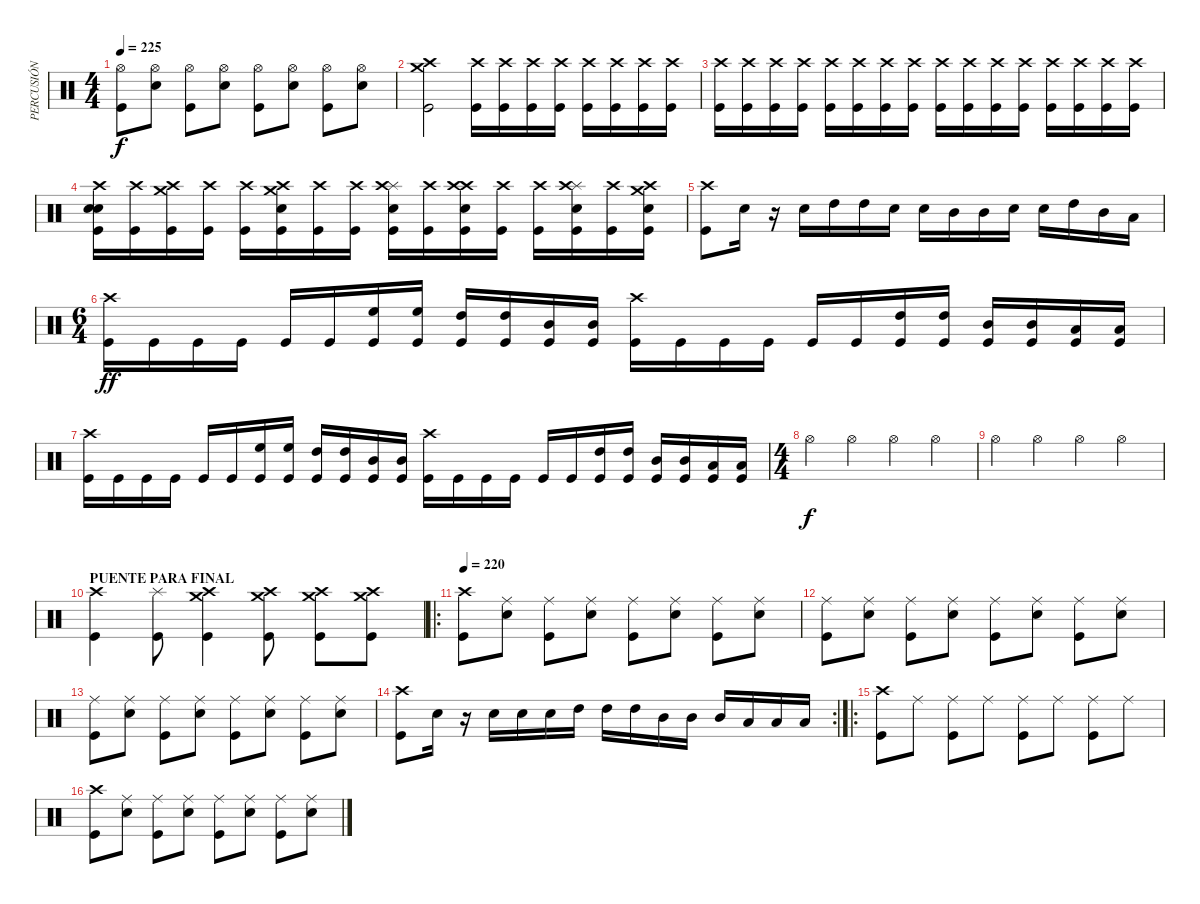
\track ("PERCUSIÓN" "PERCUSIÓN") {instrument percussion}
\staff {score}
\articulation defaults
\ts (4 4)
\tempo 225
\clef neutral
\ks c
("Hi-Hat (open)" "Kick (hit)").8{dy f} ("Hi-Hat (open)" "Snare (hit) 2").8 ("Hi-Hat (open)" "Kick (hit)").8 ("Hi-Hat (open)" "Snare (hit) 2").8 ("Hi-Hat (open)" "Kick (hit)").8 ("Hi-Hat (open)" "Snare (hit) 2").8 ("Hi-Hat (open)" "Kick (hit)").8 ("Hi-Hat (open)" "Snare (hit) 2").8 |
("Crash medium (hit)" "Kick (hit)" "Crash high (hit)").2 ("Crash high (hit)" "Kick (hit)").16 ("Crash high (hit)" "Kick (hit)").16 ("Crash high (hit)" "Kick (hit)").16 ("Crash high (hit)" "Kick (hit)").16 ("Crash high (hit)" "Kick (hit)").16 ("Crash high (hit)" "Kick (hit)").16 ("Crash high (hit)" "Kick (hit)").16 ("Crash high (hit)" "Kick (hit)").16 |
("Crash high (hit)" "Kick (hit)").16 ("Crash high (hit)" "Kick (hit)").16 ("Crash high (hit)" "Kick (hit)").16 ("Crash high (hit)" "Kick (hit)").16 ("Crash high (hit)" "Kick (hit)").16 ("Crash high (hit)" "Kick (hit)").16 ("Crash high (hit)" "Kick (hit)").16 ("Crash high (hit)" "Kick (hit)").16 ("Crash high (hit)" "Kick (hit)").16 ("Crash high (hit)" "Kick (hit)").16 ("Crash high (hit)" "Kick (hit)").16 ("Crash high (hit)" "Kick (hit)").16 ("Crash high (hit)" "Kick (hit)").16 ("Crash high (hit)" "Kick (hit)").16 ("Crash high (hit)" "Kick (hit)").16 ("Crash high (hit)" "Kick (hit)").16 |
("Snare (hit) 2" "Snare (hit) 2" "Crash high (hit)" "Kick (hit)").16 ("Crash high (hit)" "Kick (hit)").16 ("Crash medium (hit)" "Crash high (hit)" "Kick (hit)").16 ("Crash high (hit)" "Kick (hit)").16 ("Crash high (hit)" "Kick (hit)").16 ("Crash medium (hit)" "Snare (hit) 2" "Crash high (hit)" "Kick (hit)").16 ("Crash high (hit)" "Kick (hit)").16 ("Crash high (hit)" "Kick (hit)").16 ("Splash (hit)" "Snare (hit) 2" "Crash high (hit)" "Kick (hit)").16 ("Crash high (hit)" "Kick (hit)").16 ("Crash high (hit)" "Snare (hit) 2" "Crash high (hit)" "Kick (hit)").16 ("Crash high (hit)" "Kick (hit)").16 ("Crash high (hit)" "Kick (hit)").16 ("Splash (hit)" "Snare (hit) 2" "Crash high (hit)" "Kick (hit)").16 ("Crash high (hit)" "Kick (hit)").16 ("Crash medium (hit)" "Snare (hit) 2" "Crash high (hit)" "Kick (hit)").16 |
("Crash high (hit)" "Kick (hit)").8 "Snare (hit) 2".16 r.16 "Snare (hit) 2".16 "High Tom (hit)".16 "High Tom (hit)".16 "Snare (hit) 2".16 "Snare (hit) 2".16 "Mid Tom (hit)".16 "Mid Tom (hit)".16 "Snare (hit) 2".16 "Snare (hit) 2".16 "High Tom (hit)".16 "Mid Tom (hit)".16 "Low Tom (hit)".16 |
\ts (6 4)
("Crash high (hit)" "Kick (hit)").16{dy ff} "Kick (hit)".16 "Kick (hit)".16 "Kick (hit)".16 "Kick (hit)".16 "Kick (hit)".16 ("High Floor Tom (hit)" "Kick (hit)").16 ("High Floor Tom (hit)" "Kick (hit)").16 ("High Tom (hit)" "Kick (hit)").16 ("High Tom (hit)" "Kick (hit)").16 ("Mid Tom (hit)" "Kick (hit)").16 ("Mid Tom (hit)" "Kick (hit)").16 ("Crash high (hit)" "Kick (hit)").16 "Kick (hit)".16 "Kick (hit)".16 "Kick (hit)".16 "Kick (hit)".16 "Kick (hit)".16 ("High Tom (hit)" "Kick (hit)").16 ("High Tom (hit)" "Kick (hit)").16 ("Mid Tom (hit)" "Kick (hit)").16 ("Mid Tom (hit)" "Kick (hit)").16 ("Low Tom (hit)" "Kick (hit)").16 ("Low Tom (hit)" "Kick (hit)").16 |
("Crash high (hit)" "Kick (hit)").16 "Kick (hit)".16 "Kick (hit)".16 "Kick (hit)".16 "Kick (hit)".16 "Kick (hit)".16 ("High Floor Tom (hit)" "Kick (hit)").16 ("High Floor Tom (hit)" "Kick (hit)").16 ("High Tom (hit)" "Kick (hit)").16 ("High Tom (hit)" "Kick (hit)").16 ("Mid Tom (hit)" "Kick (hit)").16 ("Mid Tom (hit)" "Kick (hit)").16 ("Crash high (hit)" "Kick (hit)").16 "Kick (hit)".16 "Kick (hit)".16 "Kick (hit)".16 "Kick (hit)".16 "Kick (hit)".16 ("High Tom (hit)" "Kick (hit)").16 ("High Tom (hit)" "Kick (hit)").16 ("Mid Tom (hit)" "Kick (hit)").16 ("Mid Tom (hit)" "Kick (hit)").16 ("Low Tom (hit)" "Kick (hit)").16 ("Low Tom (hit)" "Kick (hit)").16 |
\ts (4 4)
"Hi-Hat (open)".4{dy f} "Hi-Hat (open)".4 "Hi-Hat (open)".4 "Hi-Hat (open)".4 |
"Hi-Hat (open)".4 "Hi-Hat (open)".4 "Hi-Hat (open)".4 "Hi-Hat (open)".4 |
\section ("" "PUENTE PARA FINAL")
("Crash high (hit)" "Kick (hit)").4 ("Splash (hit)" "Kick (hit)").8 ("Crash medium (hit)" "Crash high (hit)" "Kick (hit)").4 ("Crash medium (hit)" "Crash high (hit)" "Kick (hit)").8 ("Crash medium (hit)" "Crash high (hit)" "Kick (hit)").8 ("Crash medium (hit)" "Crash high (hit)" "Kick (hit)").8 |
\ro
\tempo 220
("Crash high (hit)" "Kick (hit)").8 ("Ride (middle)" "Snare (hit) 2").8 ("Ride (middle)" "Kick (hit)").8 ("Ride (middle)" "Snare (hit) 2").8 ("Ride (middle)" "Kick (hit)").8 ("Ride (middle)" "Snare (hit) 2").8 ("Ride (middle)" "Kick (hit)").8 ("Ride (middle)" "Snare (hit) 2").8 |
("Ride (middle)" "Kick (hit)").8 ("Ride (middle)" "Snare (hit) 2").8 ("Ride (middle)" "Kick (hit)").8 ("Ride (middle)" "Snare (hit) 2").8 ("Ride (middle)" "Kick (hit)").8 ("Ride (middle)" "Snare (hit) 2").8 ("Ride (middle)" "Kick (hit)").8 ("Ride (middle)" "Snare (hit) 2").8 |
("Ride (middle)" "Kick (hit)").8 ("Ride (middle)" "Snare (hit) 2").8 ("Ride (middle)" "Kick (hit)").8 ("Ride (middle)" "Snare (hit) 2").8 ("Ride (middle)" "Kick (hit)").8 ("Ride (middle)" "Snare (hit) 2").8 ("Ride (middle)" "Kick (hit)").8 ("Ride (middle)" "Snare (hit) 2").8 |
\rc 2
("Crash high (hit)" "Kick (hit)").8 "Snare (hit) 2".16 r.16 "Snare (hit) 2".16 "Snare (hit) 2".16 "Snare (hit) 2".16 "High Tom (hit)".16 "High Tom (hit)".16 "High Tom (hit)".16 "Mid Tom (hit)".16 "Mid Tom (hit)".16 "Mid Tom (hit)".16 "Low Tom (hit)".16 "Low Tom (hit)".16 "Low Tom (hit)".16 |
\ro
("Crash high (hit)" "Kick (hit)").8 "Ride (middle)".8 ("Ride (middle)" "Kick (hit)").8 "Ride (middle)".8 ("Ride (middle)" "Kick (hit)").8 "Ride (middle)".8 ("Ride (middle)" "Kick (hit)").8 "Ride (middle)".8 |
("Crash high (hit)" "Kick (hit)").8 ("Ride (middle)" "Snare (hit) 2").8 ("Ride (middle)" "Kick (hit)").8 ("Ride (middle)" "Snare (hit) 2").8 ("Ride (middle)" "Kick (hit)").8 ("Ride (middle)" "Snare (hit) 2").8 ("Ride (middle)" "Kick (hit)").8 ("Ride (middle)" "Snare (hit) 2").8
